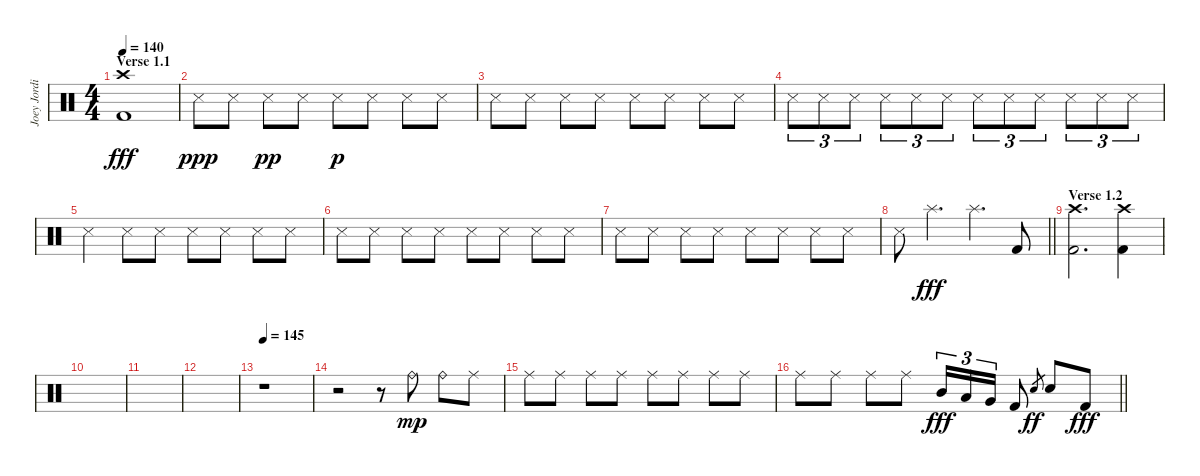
\track ("Joey Jordison" "Joey Jordi") {instrument percussion}
\staff {score}
\articulation defaults
\ts (4 4)
\section ("" "Verse 1.1")
\tempo 140
\clef neutral
\ks c
("Crash high (hit)" "Kick (hit) 2").1{dy fff} |
"Snare (side stick) 3".8{dy ppp} "Snare (side stick) 3".8 "Snare (side stick) 3".8{dy pp} "Snare (side stick) 3".8 "Snare (side stick) 3".8{dy p} "Snare (side stick) 3".8 "Snare (side stick) 3".8 "Snare (side stick) 3".8 |
"Snare (side stick) 3".8 "Snare (side stick) 3".8 "Snare (side stick) 3".8 "Snare (side stick) 3".8 "Snare (side stick) 3".8 "Snare (side stick) 3".8 "Snare (side stick) 3".8 "Snare (side stick) 3".8 |
"Snare (side stick) 3".8{tu (3 2)} "Snare (side stick) 3".8{tu (3 2)} "Snare (side stick) 3".8{tu (3 2)} "Snare (side stick) 3".8{tu (3 2)} "Snare (side stick) 3".8{tu (3 2)} "Snare (side stick) 3".8{tu (3 2)} "Snare (side stick) 3".8{tu (3 2)} "Snare (side stick) 3".8{tu (3 2)} "Snare (side stick) 3".8{tu (3 2)} "Snare (side stick) 3".8{tu (3 2)} "Snare (side stick) 3".8{tu (3 2)} "Snare (side stick) 3".8{tu (3 2)} |
"Snare (side stick) 3".4 "Snare (side stick) 3".8 "Snare (side stick) 3".8 "Snare (side stick) 3".8 "Snare (side stick) 3".8 "Snare (side stick) 3".8 "Snare (side stick) 3".8 |
"Snare (side stick) 3".8 "Snare (side stick) 3".8 "Snare (side stick) 3".8 "Snare (side stick) 3".8 "Snare (side stick) 3".8 "Snare (side stick) 3".8 "Snare (side stick) 3".8 "Snare (side stick) 3".8 |
"Snare (side stick) 3".8 "Snare (side stick) 3".8 "Snare (side stick) 3".8 "Snare (side stick) 3".8 "Snare (side stick) 3".8 "Snare (side stick) 3".8 "Snare (side stick) 3".8 "Snare (side stick) 3".8 |
\barLineRight lightlight "Snare (side stick) 3".8 "Splash (hit)".4{d dy fff} "Splash (hit)".4{d} "Kick (hit) 2".8
|
\section ("" "Verse 1.2")
("Crash high (hit)" "Kick (hit) 2").2{d} ("Crash high (hit)" "Kick (hit) 2").4 |
|
|
|
\tempo 145
r.1 |
r.2 r.8 "Ride (bell)".8{dy mp} "Ride (bell)".8 "Ride (middle)".8 |
"Ride (middle)".8 "Ride (middle)".8 "Ride (middle)".8 "Ride (middle)".8 "Ride (middle)".8 "Ride (middle)".8 "Ride (middle)".8 "Ride (middle)".8 |
\barLineRight lightlight "Ride (middle)".8 "Ride (middle)".8 "Ride (middle)".8 "Ride (middle)".8 "Mid Tom (hit)".16{tu (3 2) dy fff} "Low Tom (hit)".16{tu (3 2)} "Very Low Tom (hit)".16{tu (3 2)} "Kick (hit) 2".8 "Electric Snare (hit)".8{gr dy ff} "Electric Snare (hit)".8 "Kick (hit) 2".8{dy fff}
